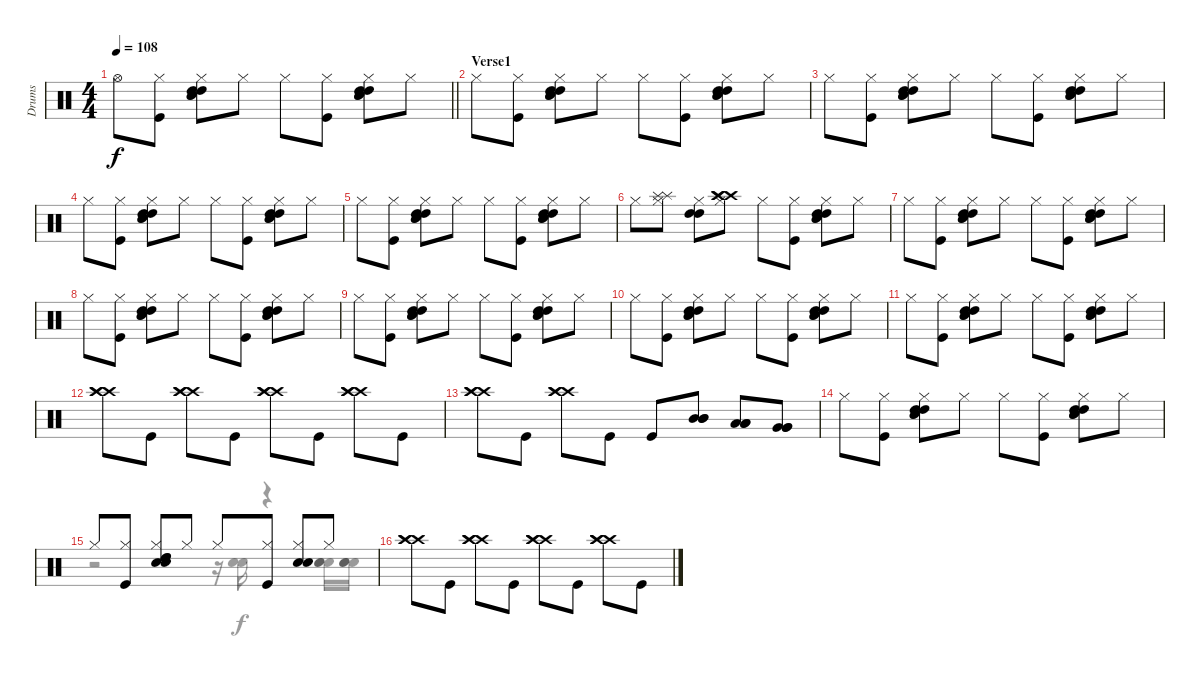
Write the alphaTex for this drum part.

\track ("Drums" "Drums") {instrument percussion}
\staff {score}
\articulation defaults
\voice
\ts (4 4)
\tempo 108
\clef neutral
\barLineRight lightlight
\ks c "Hi-Hat (open)".8{dy f}
("Kick (hit)" "Hi-Hat (closed)").8 ("Snare (hit) 2" "Snare (hit) 2" "High Tom (hit)" "High Tom (hit)" "Hi-Hat (closed)").8 "Hi-Hat (closed)".8 "Hi-Hat (closed)".8 ("Kick (hit)" "Hi-Hat (closed)").8 ("Snare (hit) 2" "Snare (hit) 2" "High Tom (hit)" "High Tom (hit)" "Hi-Hat (closed)").8 "Hi-Hat (closed)".8 |
\section ("" "Verse1")
"Hi-Hat (closed)".8 ("Kick (hit)" "Hi-Hat (closed)").8 ("Snare (hit) 2" "Snare (hit) 2" "High Tom (hit)" "High Tom (hit)" "Hi-Hat (closed)").8 "Hi-Hat (closed)".8 "Hi-Hat (closed)".8 ("Kick (hit)" "Hi-Hat (closed)").8 ("Snare (hit) 2" "Snare (hit) 2" "High Tom (hit)" "High Tom (hit)" "Hi-Hat (closed)").8 "Hi-Hat (closed)".8 |
"Hi-Hat (closed)".8 ("Kick (hit)" "Hi-Hat (closed)").8 ("Snare (hit) 2" "Snare (hit) 2" "High Tom (hit)" "High Tom (hit)" "Hi-Hat (closed)").8 "Hi-Hat (closed)".8 "Hi-Hat (closed)".8 ("Kick (hit)" "Hi-Hat (closed)").8 ("Snare (hit) 2" "Snare (hit) 2" "High Tom (hit)" "High Tom (hit)" "Hi-Hat (closed)").8 "Hi-Hat (closed)".8 |
"Hi-Hat (closed)".8 ("Kick (hit)" "Hi-Hat (closed)").8 ("Snare (hit) 2" "Snare (hit) 2" "High Tom (hit)" "High Tom (hit)" "Hi-Hat (closed)").8 "Hi-Hat (closed)".8 "Hi-Hat (closed)".8 ("Kick (hit)" "Hi-Hat (closed)").8 ("Snare (hit) 2" "Snare (hit) 2" "High Tom (hit)" "High Tom (hit)" "Hi-Hat (closed)").8 "Hi-Hat (closed)".8 |
"Hi-Hat (closed)".8 ("Kick (hit)" "Hi-Hat (closed)").8 ("Snare (hit) 2" "Snare (hit) 2" "High Tom (hit)" "High Tom (hit)" "Hi-Hat (closed)").8 "Hi-Hat (closed)".8 "Hi-Hat (closed)".8 ("Kick (hit)" "Hi-Hat (closed)").8 ("Snare (hit) 2" "Snare (hit) 2" "High Tom (hit)" "High Tom (hit)" "Hi-Hat (closed)").8 "Hi-Hat (closed)".8 |
"Hi-Hat (closed)".8 ("Splash (hit)" "Splash (hit)" "Hi-Hat (closed)").8 ("High Tom (hit)" "High Tom (hit)" "Hi-Hat (closed)").8 ("Crash high (hit)" "Crash high (hit)" "Crash high (hit)" "Hi-Hat (closed)").8 "Hi-Hat (closed)".8 ("Kick (hit)" "Hi-Hat (closed)").8 ("Snare (hit) 2" "Snare (hit) 2" "High Tom (hit)" "High Tom (hit)" "Hi-Hat (closed)").8 "Hi-Hat (closed)".8 |
"Hi-Hat (closed)".8 ("Kick (hit)" "Hi-Hat (closed)").8 ("Snare (hit) 2" "Snare (hit) 2" "High Tom (hit)" "High Tom (hit)" "Hi-Hat (closed)").8 "Hi-Hat (closed)".8 "Hi-Hat (closed)".8 ("Kick (hit)" "Hi-Hat (closed)").8 ("Snare (hit) 2" "Snare (hit) 2" "High Tom (hit)" "High Tom (hit)" "Hi-Hat (closed)").8 "Hi-Hat (closed)".8 |
"Hi-Hat (closed)".8 ("Kick (hit)" "Hi-Hat (closed)").8 ("Snare (hit) 2" "Snare (hit) 2" "High Tom (hit)" "High Tom (hit)" "Hi-Hat (closed)").8 "Hi-Hat (closed)".8 "Hi-Hat (closed)".8 ("Kick (hit)" "Hi-Hat (closed)").8 ("Snare (hit) 2" "Snare (hit) 2" "High Tom (hit)" "High Tom (hit)" "Hi-Hat (closed)").8 "Hi-Hat (closed)".8 |
"Hi-Hat (closed)".8 ("Kick (hit)" "Hi-Hat (closed)").8 ("Snare (hit) 2" "Snare (hit) 2" "High Tom (hit)" "High Tom (hit)" "Hi-Hat (closed)").8 "Hi-Hat (closed)".8 "Hi-Hat (closed)".8 ("Kick (hit)" "Hi-Hat (closed)").8 ("Snare (hit) 2" "Snare (hit) 2" "High Tom (hit)" "High Tom (hit)" "Hi-Hat (closed)").8 "Hi-Hat (closed)".8 |
"Hi-Hat (closed)".8 ("Kick (hit)" "Hi-Hat (closed)").8 ("Snare (hit) 2" "Snare (hit) 2" "High Tom (hit)" "High Tom (hit)" "Hi-Hat (closed)").8 "Hi-Hat (closed)".8 "Hi-Hat (closed)".8 ("Kick (hit)" "Hi-Hat (closed)").8 ("Snare (hit) 2" "Snare (hit) 2" "High Tom (hit)" "High Tom (hit)" "Hi-Hat (closed)").8 "Hi-Hat (closed)".8 |
"Hi-Hat (closed)".8 ("Kick (hit)" "Hi-Hat (closed)").8 ("Snare (hit) 2" "Snare (hit) 2" "High Tom (hit)" "High Tom (hit)" "Hi-Hat (closed)").8 "Hi-Hat (closed)".8 "Hi-Hat (closed)".8 ("Kick (hit)" "Hi-Hat (closed)").8 ("Snare (hit) 2" "Snare (hit) 2" "High Tom (hit)" "High Tom (hit)" "Hi-Hat (closed)").8 "Hi-Hat (closed)".8 |
("Crash high (hit)" "Crash high (hit)" "Crash high (hit)").8 "Kick (hit)".8 ("Crash high (hit)" "Crash high (hit)" "Crash high (hit)").8 "Kick (hit)".8 ("Crash high (hit)" "Crash high (hit)" "Crash high (hit)").8 "Kick (hit)".8 ("Crash high (hit)" "Crash high (hit)" "Crash high (hit)").8 "Kick (hit)".8 |
("Crash high (hit)" "Crash high (hit)" "Crash high (hit)").8 "Kick (hit)".8 ("Crash high (hit)" "Crash high (hit)" "Crash high (hit)").8 "Kick (hit)".8 "Kick (hit)".8 ("Mid Tom (hit)" "Mid Tom (hit)" "Mid Tom (hit)").8 ("Low Tom (hit)" "Low Tom (hit)" "Low Tom (hit)").8 ("Very Low Tom (hit)" "Very Low Tom (hit)" "Very Low Tom (hit)").8 |
"Hi-Hat (closed)".8 ("Kick (hit)" "Hi-Hat (closed)").8 ("Snare (hit) 2" "Snare (hit) 2" "High Tom (hit)" "High Tom (hit)" "Hi-Hat (closed)").8 "Hi-Hat (closed)".8 "Hi-Hat (closed)".8 ("Kick (hit)" "Hi-Hat (closed)").8 ("Snare (hit) 2" "Snare (hit) 2" "High Tom (hit)" "High Tom (hit)" "Hi-Hat (closed)").8 "Hi-Hat (closed)".8 |
"Hi-Hat (closed)".8 ("Kick (hit)" "Hi-Hat (closed)").8 ("Snare (hit) 2" "Snare (hit) 2" "High Tom (hit)" "High Tom (hit)" "Hi-Hat (closed)").8 "Hi-Hat (closed)".8 "Hi-Hat (closed)".8 ("Kick (hit)" "Hi-Hat (closed)").8 ("Snare (hit) 2" "Snare (hit) 2" "Hi-Hat (closed)").8 "Hi-Hat (closed)".8 |
("Crash high (hit)" "Crash high (hit)" "Crash high (hit)").8 "Kick (hit)".8 ("Crash high (hit)" "Crash high (hit)" "Crash high (hit)").8 "Kick (hit)".8 ("Crash high (hit)" "Crash high (hit)" "Crash high (hit)").8 "Kick (hit)".8 ("Crash high (hit)" "Crash high (hit)" "Crash high (hit)").8 "Kick (hit)".8
\voice
\clef neutral
\ottava regular
\simile none
\barLineRight lightlight
\ks c
|
|
|
|
|
|
|
|
|
|
|
|
|
|
r.2 r.16 ("Snare (hit) 2" "Snare (hit) 2").16 r.4 ("Snare (hit) 2" "Snare (hit) 2" "Snare (hit) 2").16 ("Snare (hit) 2" "Snare (hit) 2" "Snare (hit) 2").16 |
